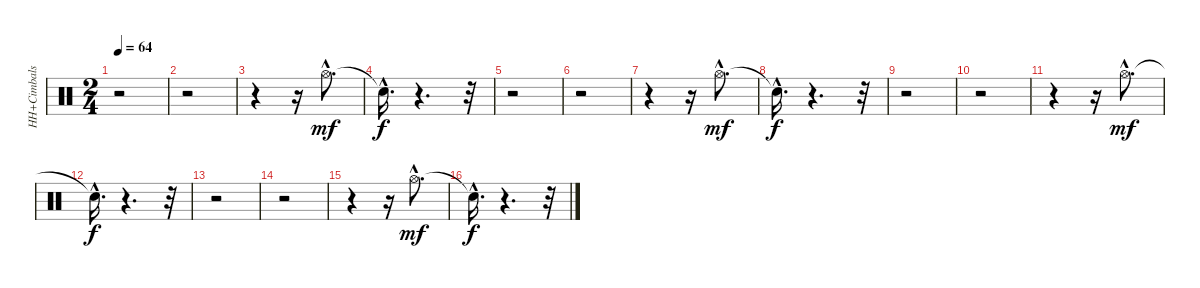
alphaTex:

\track ("HH+Cimbals" "HH+Cimbals") {instrument percussion}
\staff {score}
\articulation defaults
\ts (2 4)
\tempo 64
\clef neutral
\ks c
r.2{dy f} |
r.2 |
r.4 r.16 "Hi-Hat (open)"{hac}.8{d dy mf} |
"Snare (hit)"{hac t}.16{d dy f} r.4{d} r.32 |
r.2 |
r.2 |
r.4 r.16 "Hi-Hat (open)"{hac}.8{d dy mf} |
"Snare (hit)"{hac t}.16{d dy f} r.4{d} r.32 |
r.2 |
r.2 |
r.4 r.16 "Hi-Hat (open)"{hac}.8{d dy mf} |
"Snare (hit)"{hac t}.16{d dy f} r.4{d} r.32 |
r.2 |
r.2 |
r.4 r.16 "Hi-Hat (open)"{hac}.8{d dy mf} |
"Snare (hit)"{hac t}.16{d dy f} r.4{d} r.32
